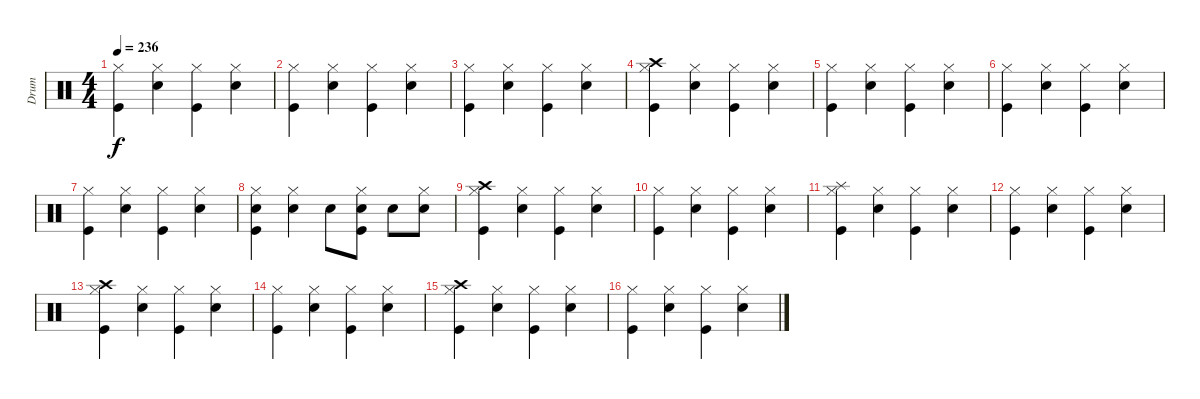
\track ("Drum" "Drum") {instrument percussion}
\staff {score}
\articulation defaults
\ts (4 4)
\tempo 236
\clef neutral
\ks c
("Hi-Hat (closed)" "Kick (hit)").4{dy f} ("Hi-Hat (closed)" "Snare (hit) 2").4 ("Hi-Hat (closed)" "Kick (hit)").4 ("Hi-Hat (closed)" "Snare (hit) 2").4 |
("Hi-Hat (closed)" "Kick (hit)").4 ("Hi-Hat (closed)" "Snare (hit) 2").4 ("Hi-Hat (closed)" "Kick (hit)").4 ("Hi-Hat (closed)" "Snare (hit) 2").4 |
("Hi-Hat (closed)" "Kick (hit)").4 ("Hi-Hat (closed)" "Snare (hit) 2").4 ("Hi-Hat (closed)" "Kick (hit)").4 ("Hi-Hat (closed)" "Snare (hit) 2").4 |
("Crash high (hit)" "Hi-Hat (closed)" "Kick (hit)").4 ("Hi-Hat (closed)" "Snare (hit) 2").4 ("Hi-Hat (closed)" "Kick (hit)").4 ("Hi-Hat (closed)" "Snare (hit) 2").4 |
("Hi-Hat (closed)" "Kick (hit)").4 ("Hi-Hat (closed)" "Snare (hit) 2").4 ("Hi-Hat (closed)" "Kick (hit)").4 ("Hi-Hat (closed)" "Snare (hit) 2").4 |
("Hi-Hat (closed)" "Kick (hit)").4 ("Hi-Hat (closed)" "Snare (hit) 2").4 ("Hi-Hat (closed)" "Kick (hit)").4 ("Hi-Hat (closed)" "Snare (hit) 2").4 |
("Hi-Hat (closed)" "Kick (hit)").4 ("Hi-Hat (closed)" "Snare (hit) 2").4 ("Hi-Hat (closed)" "Kick (hit)").4 ("Hi-Hat (closed)" "Snare (hit) 2").4 |
("Hi-Hat (closed)" "Snare (hit) 2" "Kick (hit)").4 ("Hi-Hat (closed)" "Snare (hit) 2").4 "Snare (hit) 2".8 ("Hi-Hat (closed)" "Snare (hit) 2" "Kick (hit)").8 "Snare (hit) 2".8 ("Hi-Hat (closed)" "Snare (hit) 2").8 |
("Crash high (hit)" "Hi-Hat (closed)" "Kick (hit)").4 ("Hi-Hat (closed)" "Snare (hit) 2").4 ("Hi-Hat (closed)" "Kick (hit)").4 ("Hi-Hat (closed)" "Snare (hit) 2").4 |
("Hi-Hat (closed)" "Kick (hit)").4 ("Hi-Hat (closed)" "Snare (hit) 2").4 ("Hi-Hat (closed)" "Kick (hit)").4 ("Hi-Hat (closed)" "Snare (hit) 2").4 |
("Splash (hit)" "Hi-Hat (closed)" "Kick (hit)").4 ("Hi-Hat (closed)" "Snare (hit) 2").4 ("Hi-Hat (closed)" "Kick (hit)").4 ("Hi-Hat (closed)" "Snare (hit) 2").4 |
("Hi-Hat (closed)" "Kick (hit)").4 ("Hi-Hat (closed)" "Snare (hit) 2").4 ("Hi-Hat (closed)" "Kick (hit)").4 ("Hi-Hat (closed)" "Snare (hit) 2").4 |
("Crash high (hit)" "Hi-Hat (closed)" "Kick (hit)").4 ("Hi-Hat (closed)" "Snare (hit) 2").4 ("Hi-Hat (closed)" "Kick (hit)").4 ("Hi-Hat (closed)" "Snare (hit) 2").4 |
("Hi-Hat (closed)" "Kick (hit)").4 ("Hi-Hat (closed)" "Snare (hit) 2").4 ("Hi-Hat (closed)" "Kick (hit)").4 ("Hi-Hat (closed)" "Snare (hit) 2").4 |
("Crash high (hit)" "Hi-Hat (closed)" "Kick (hit)").4 ("Hi-Hat (closed)" "Snare (hit) 2").4 ("Hi-Hat (closed)" "Kick (hit)").4 ("Hi-Hat (closed)" "Snare (hit) 2").4 |
("Hi-Hat (closed)" "Kick (hit)").4 ("Hi-Hat (closed)" "Snare (hit) 2").4 ("Hi-Hat (closed)" "Kick (hit)").4 ("Hi-Hat (closed)" "Snare (hit) 2").4
